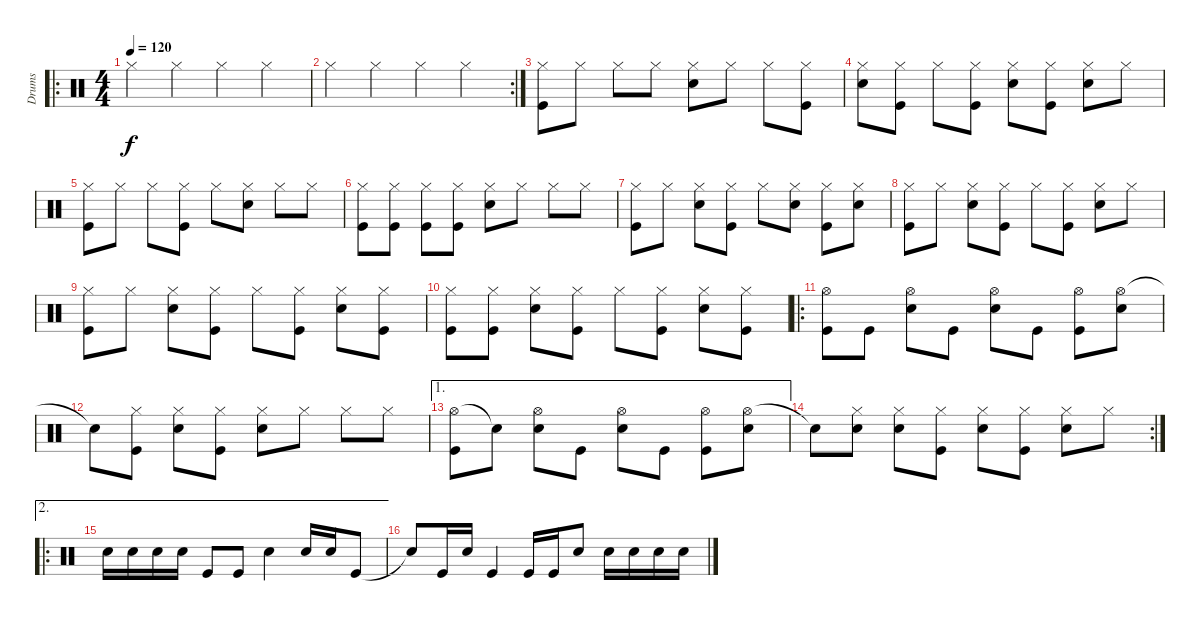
\track ("Drums" "Drums") {instrument percussion}
\staff {score}
\articulation defaults
\ro
\ts (4 4)
\tempo 120
\clef neutral
\ks c "Hi-Hat (closed)".4{dy f} "Hi-Hat (closed)".4 "Hi-Hat (closed)".4 "Hi-Hat (closed)".4
|
\rc 2 "Hi-Hat (closed)".4 "Hi-Hat (closed)".4 "Hi-Hat (closed)".4 "Hi-Hat (closed)".4
|
("Hi-Hat (closed)" "Kick (hit)").8 "Hi-Hat (closed)".8 "Hi-Hat (closed)".8 "Hi-Hat (closed)".8 ("Hi-Hat (closed)" "Snare (hit) 2").8 "Hi-Hat (closed)".8 "Hi-Hat (closed)".8 ("Hi-Hat (closed)" "Kick (hit)").8 |
("Hi-Hat (closed)" "Snare (hit) 2").8 ("Hi-Hat (closed)" "Kick (hit)").8 "Hi-Hat (closed)".8 ("Hi-Hat (closed)" "Kick (hit)").8 ("Hi-Hat (closed)" "Snare (hit) 2").8 ("Hi-Hat (closed)" "Kick (hit)").8 ("Hi-Hat (closed)" "Snare (hit) 2").8 "Hi-Hat (closed)".8 |
("Hi-Hat (closed)" "Kick (hit)").8 "Hi-Hat (closed)".8 "Hi-Hat (closed)".8 ("Hi-Hat (closed)" "Kick (hit)").8 "Hi-Hat (closed)".8 ("Hi-Hat (closed)" "Snare (hit) 2").8 "Hi-Hat (closed)".8 "Hi-Hat (closed)".8 |
("Hi-Hat (closed)" "Kick (hit)").8 ("Hi-Hat (closed)" "Kick (hit)").8 ("Hi-Hat (closed)" "Kick (hit)").8 ("Hi-Hat (closed)" "Kick (hit)").8 ("Hi-Hat (closed)" "Snare (hit) 2").8 "Hi-Hat (closed)".8 "Hi-Hat (closed)".8 "Hi-Hat (closed)".8 |
("Hi-Hat (closed)" "Kick (hit)").8 "Hi-Hat (closed)".8 ("Hi-Hat (closed)" "Snare (hit) 2").8 ("Hi-Hat (closed)" "Kick (hit)").8 "Hi-Hat (closed)".8 ("Hi-Hat (closed)" "Snare (hit) 2").8 ("Hi-Hat (closed)" "Kick (hit)").8 ("Hi-Hat (closed)" "Snare (hit) 2").8 |
("Hi-Hat (closed)" "Kick (hit)").8 "Hi-Hat (closed)".8 ("Hi-Hat (closed)" "Snare (hit) 2").8 ("Hi-Hat (closed)" "Kick (hit)").8 "Hi-Hat (closed)".8 ("Hi-Hat (closed)" "Kick (hit)").8 ("Hi-Hat (closed)" "Snare (hit) 2").8 "Hi-Hat (closed)".8 |
("Hi-Hat (closed)" "Kick (hit)").8 "Hi-Hat (closed)".8 ("Hi-Hat (closed)" "Snare (hit) 2").8 ("Hi-Hat (closed)" "Kick (hit)").8 "Hi-Hat (closed)".8 ("Hi-Hat (closed)" "Kick (hit)").8 ("Hi-Hat (closed)" "Snare (hit) 2").8 ("Hi-Hat (closed)" "Kick (hit)").8 |
("Hi-Hat (closed)" "Kick (hit)").8 ("Hi-Hat (closed)" "Kick (hit)").8 ("Hi-Hat (closed)" "Snare (hit) 2").8 ("Hi-Hat (closed)" "Kick (hit)").8 "Hi-Hat (closed)".8 ("Hi-Hat (closed)" "Kick (hit)").8 ("Hi-Hat (closed)" "Snare (hit) 2").8 ("Hi-Hat (closed)" "Kick (hit)").8 |
\ro
("Hi-Hat (open)" "Kick (hit)").8 "Kick (hit)".8 ("Hi-Hat (open)" "Snare (hit) 2").8 "Kick (hit)".8 ("Hi-Hat (open)" "Snare (hit) 2").8 "Kick (hit)".8 ("Hi-Hat (open)" "Kick (hit)").8 ("Hi-Hat (open)" "Snare (hit) 2").8 |
"Snare (hit)"{t}.8 ("Hi-Hat (closed)" "Kick (hit)").8 ("Hi-Hat (closed)" "Snare (hit) 2").8 ("Hi-Hat (closed)" "Kick (hit)").8 ("Hi-Hat (closed)" "Snare (hit) 2").8 "Hi-Hat (closed)".8 "Hi-Hat (closed)".8 "Hi-Hat (closed)".8 |
\ae 1
("Hi-Hat (open)" "Kick (hit)").8 "Snare (hit)"{t}.8 ("Hi-Hat (open)" "Snare (hit) 2").8 "Kick (hit)".8 ("Hi-Hat (open)" "Snare (hit) 2").8 "Kick (hit)".8 ("Hi-Hat (open)" "Kick (hit)").8 ("Hi-Hat (open)" "Snare (hit) 2").8 |
\rc 2 "Snare (hit)"{t}.8
("Hi-Hat (closed)" "Snare (hit) 2").8 ("Hi-Hat (closed)" "Snare (hit) 2").8 ("Hi-Hat (closed)" "Kick (hit)").8 ("Hi-Hat (closed)" "Snare (hit) 2").8 ("Hi-Hat (closed)" "Kick (hit)").8 ("Hi-Hat (closed)" "Snare (hit) 2").8 "Hi-Hat (closed)".8 |
\ae 2
\ro "Snare (hit) 2".16 "Snare (hit) 2".16 "Snare (hit) 2".16 "Snare (hit) 2".16 "Kick (hit)".8 "Kick (hit)".8 "Snare (hit) 2".4 "Snare (hit) 2".16 "Snare (hit) 2".16 "Kick (hit)".8
|
"Snare (hit)"{t}.8 "Kick (hit)".16 "Snare (hit) 2".16 "Kick (hit)".4 "Kick (hit)".16 "Kick (hit)".16 "Snare (hit) 2".8 "Snare (hit) 2".16 "Snare (hit) 2".16 "Snare (hit) 2".16 "Snare (hit) 2".16
